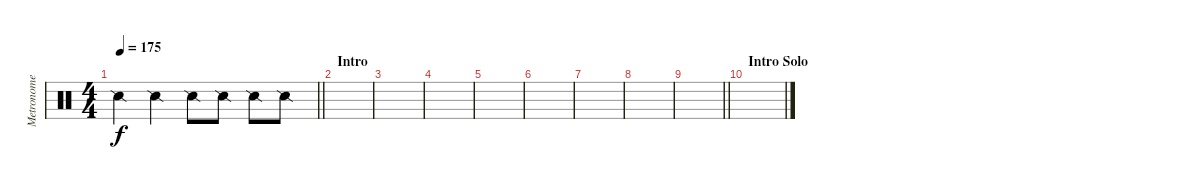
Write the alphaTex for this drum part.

\track ("Metronome" "Metronome") {instrument percussion}
\staff {score}
\articulation defaults
\ts (4 4)
\tempo 175
\clef neutral
\barLineRight lightlight
\ks c "Snare (side stick) 2".4{dy f} "Snare (side stick) 2".4 "Snare (side stick) 2".8 "Snare (side stick) 2".8 "Snare (side stick) 2".8 "Snare (side stick) 2".8
|
\section ("" "Intro")
|
|
|
|
|
|
|
\barLineRight lightlight
|
\section ("" "Intro Solo")
